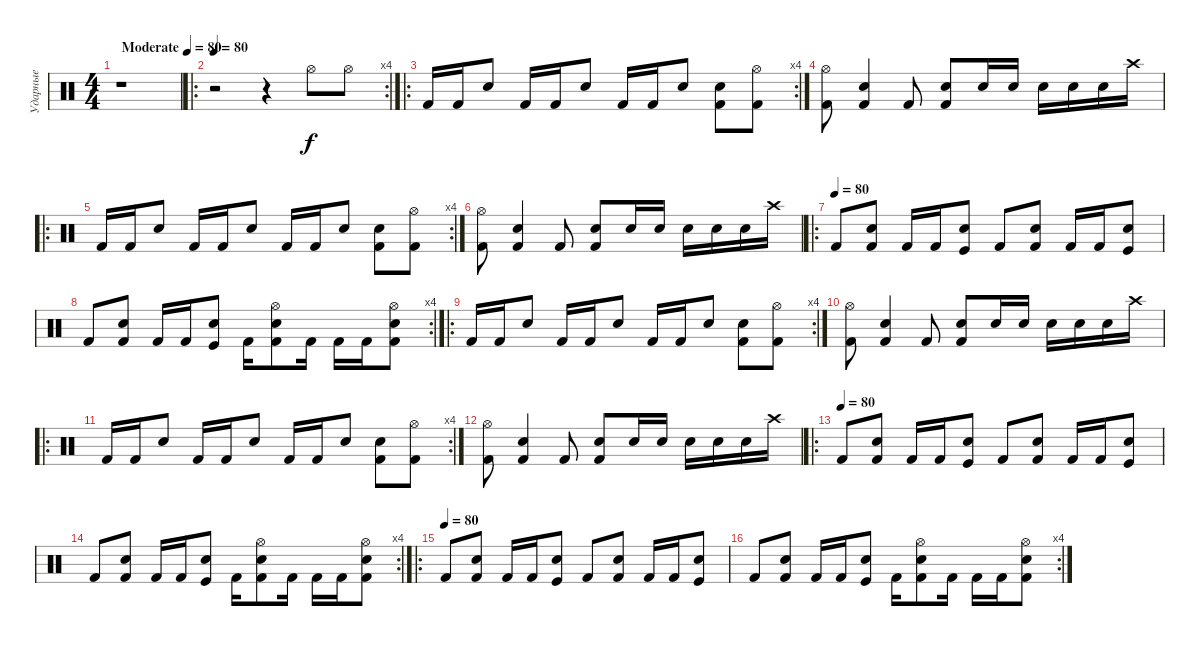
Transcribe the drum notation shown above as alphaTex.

\track ("Ударные" "Ударные") {instrument percussion}
\staff
\articulation defaults
\ts (4 4)
\tempo (80 "Moderate")
\clef neutral
\ks c
r.1{dy f} |
\ro
\rc 4
\tempo 80
r.2 r.4 "Hi-Hat (open)".8 "Hi-Hat (open)".8 |
\ro
\rc 4 "Kick (hit) 2".16 "Kick (hit) 2".16 "Snare (hit) 2".8 "Kick (hit) 2".16 "Kick (hit) 2".16 "Snare (hit) 2".8 "Kick (hit) 2".16 "Kick (hit) 2".16 "Snare (hit) 2".8
("Snare (hit) 2" "Kick (hit) 2").8 ("Hi-Hat (open)" "Kick (hit) 2").8 |
("Hi-Hat (open)" "Kick (hit) 2").8 ("Snare (hit) 2" "Kick (hit) 2").4 "Kick (hit) 2".8 ("Snare (hit) 2" "Kick (hit) 2").8 "Snare (hit) 2".16 "Snare (hit) 2".16 "Snare (hit) 2".16 "Snare (hit) 2".16 "Snare (hit) 2".16 "Crash high (hit)".16 |
\ro
\rc 4 "Kick (hit) 2".16 "Kick (hit) 2".16 "Snare (hit) 2".8 "Kick (hit) 2".16 "Kick (hit) 2".16 "Snare (hit) 2".8 "Kick (hit) 2".16 "Kick (hit) 2".16 "Snare (hit) 2".8
("Snare (hit) 2" "Kick (hit) 2").8 ("Hi-Hat (open)" "Kick (hit) 2").8 |
("Hi-Hat (open)" "Kick (hit) 2").8 ("Snare (hit) 2" "Kick (hit) 2").4 "Kick (hit) 2".8 ("Snare (hit) 2" "Kick (hit) 2").8 "Snare (hit) 2".16 "Snare (hit) 2".16 "Snare (hit) 2".16 "Snare (hit) 2".16 "Snare (hit) 2".16 "Crash high (hit)".16 |
\ro
\tempo (80)
"Kick (hit) 2".8 ("Snare (hit) 2" "Kick (hit) 2").8 "Kick (hit) 2".16 "Kick (hit) 2".16 ("Snare (hit) 2" "Kick (hit)").8 "Kick (hit) 2".8 ("Snare (hit) 2" "Kick (hit) 2").8 "Kick (hit) 2".16 "Kick (hit) 2".16 ("Snare (hit) 2" "Kick (hit)").8 |
\rc 4 "Kick (hit) 2".8
("Snare (hit) 2" "Kick (hit) 2").8 "Kick (hit) 2".16 "Kick (hit) 2".16 ("Snare (hit) 2" "Kick (hit)").8 "Kick (hit) 2".16 ("Hi-Hat (open)" "Snare (hit) 2" "Kick (hit) 2").8 "Kick (hit) 2".16 "Kick (hit) 2".16 "Kick (hit) 2".16 ("Hi-Hat (open)" "Snare (hit) 2" "Kick (hit) 2").8 |
\ro
\rc 4 "Kick (hit) 2".16 "Kick (hit) 2".16 "Snare (hit) 2".8 "Kick (hit) 2".16 "Kick (hit) 2".16 "Snare (hit) 2".8 "Kick (hit) 2".16 "Kick (hit) 2".16 "Snare (hit) 2".8
("Snare (hit) 2" "Kick (hit) 2").8 ("Hi-Hat (open)" "Kick (hit) 2").8 |
("Hi-Hat (open)" "Kick (hit) 2").8 ("Snare (hit) 2" "Kick (hit) 2").4 "Kick (hit) 2".8 ("Snare (hit) 2" "Kick (hit) 2").8 "Snare (hit) 2".16 "Snare (hit) 2".16 "Snare (hit) 2".16 "Snare (hit) 2".16 "Snare (hit) 2".16 "Crash high (hit)".16 |
\ro
\rc 4 "Kick (hit) 2".16 "Kick (hit) 2".16 "Snare (hit) 2".8 "Kick (hit) 2".16 "Kick (hit) 2".16 "Snare (hit) 2".8 "Kick (hit) 2".16 "Kick (hit) 2".16 "Snare (hit) 2".8
("Snare (hit) 2" "Kick (hit) 2").8 ("Hi-Hat (open)" "Kick (hit) 2").8 |
("Hi-Hat (open)" "Kick (hit) 2").8 ("Snare (hit) 2" "Kick (hit) 2").4 "Kick (hit) 2".8 ("Snare (hit) 2" "Kick (hit) 2").8 "Snare (hit) 2".16 "Snare (hit) 2".16 "Snare (hit) 2".16 "Snare (hit) 2".16 "Snare (hit) 2".16 "Crash high (hit)".16 |
\ro
\tempo (80)
"Kick (hit) 2".8 ("Snare (hit) 2" "Kick (hit) 2").8 "Kick (hit) 2".16 "Kick (hit) 2".16 ("Snare (hit) 2" "Kick (hit)").8 "Kick (hit) 2".8 ("Snare (hit) 2" "Kick (hit) 2").8 "Kick (hit) 2".16 "Kick (hit) 2".16 ("Snare (hit) 2" "Kick (hit)").8 |
\rc 4 "Kick (hit) 2".8
("Snare (hit) 2" "Kick (hit) 2").8 "Kick (hit) 2".16 "Kick (hit) 2".16 ("Snare (hit) 2" "Kick (hit)").8 "Kick (hit) 2".16 ("Hi-Hat (open)" "Snare (hit) 2" "Kick (hit) 2").8 "Kick (hit) 2".16 "Kick (hit) 2".16 "Kick (hit) 2".16 ("Hi-Hat (open)" "Snare (hit) 2" "Kick (hit) 2").8 |
\ro
\tempo (80)
"Kick (hit) 2".8 ("Snare (hit) 2" "Kick (hit) 2").8 "Kick (hit) 2".16 "Kick (hit) 2".16 ("Snare (hit) 2" "Kick (hit)").8 "Kick (hit) 2".8 ("Snare (hit) 2" "Kick (hit) 2").8 "Kick (hit) 2".16 "Kick (hit) 2".16 ("Snare (hit) 2" "Kick (hit)").8 |
\rc 4 "Kick (hit) 2".8
("Snare (hit) 2" "Kick (hit) 2").8 "Kick (hit) 2".16 "Kick (hit) 2".16 ("Snare (hit) 2" "Kick (hit)").8 "Kick (hit) 2".16 ("Hi-Hat (open)" "Snare (hit) 2" "Kick (hit) 2").8 "Kick (hit) 2".16 "Kick (hit) 2".16 "Kick (hit) 2".16 ("Hi-Hat (open)" "Snare (hit) 2" "Kick (hit) 2").8
